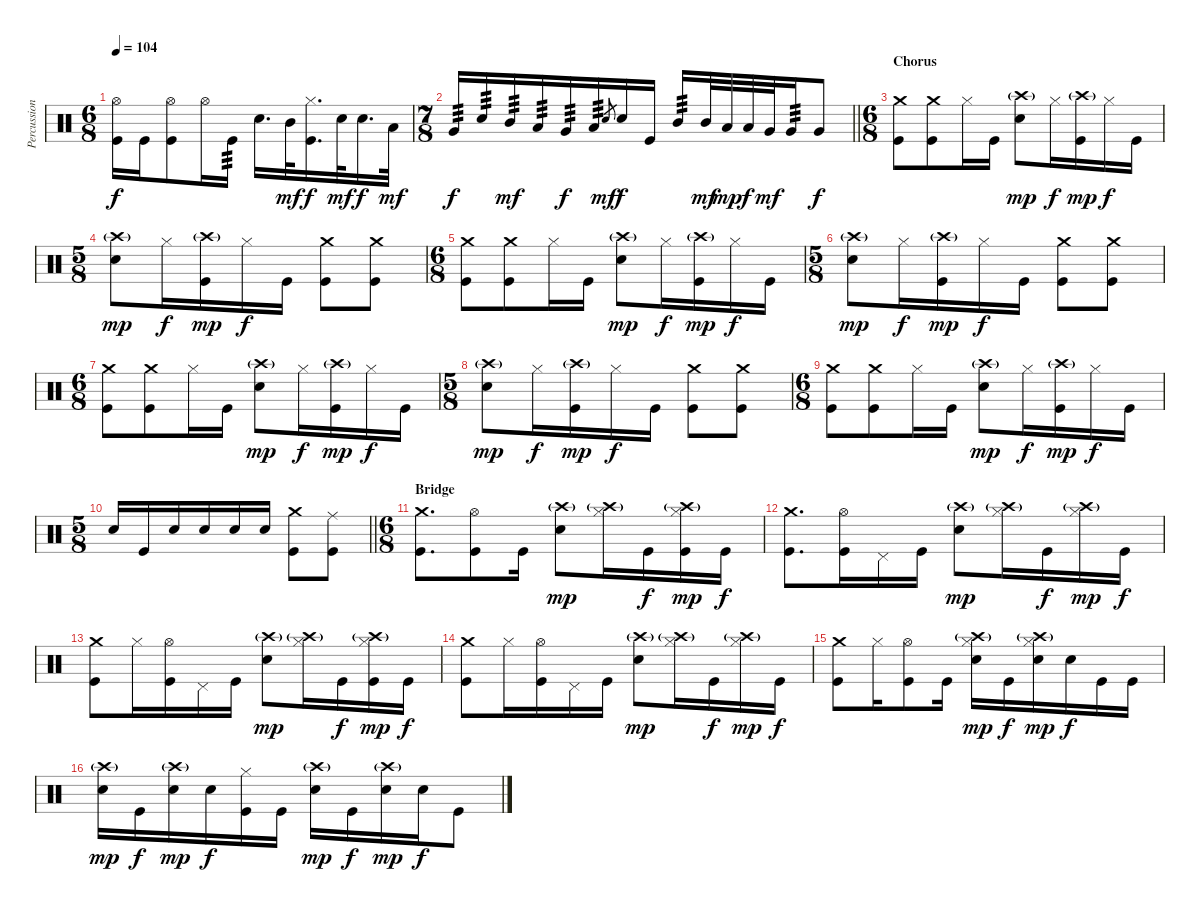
\track ("Percussion" "Percussion") {instrument percussion}
\staff {score}
\articulation defaults
\ts (6 8)
\tempo 104
\clef neutral
\ks c
("Hi-Hat (open)" "Kick (hit)").16{dy f} "Kick (hit)".16 ("Hi-Hat (open)" "Kick (hit)").8 "Hi-Hat (open)".16 "Kick (hit)".16{tp 3} "Snare (hit) 2".16{d} "Mid Tom (hit)".32{dy mf} ("Hi-Hat (closed)" "Kick (hit)").16{d dy f} "Snare (hit) 2".32{dy mf} "Snare (hit) 2".16{d dy f} "Low Tom (hit)".32{dy mf} |
\ts (7 8)
\barLineRight lightlight "Very Low Tom (hit)".16{tp 3 dy f} "Snare (hit) 2".16{tp 3} "Mid Tom (hit)".16{tp 3 dy mf} "Low Tom (hit)".16{tp 3} "Very Low Tom (hit)".16{tp 3 dy f} "Low Floor Tom (hit)".16{tp 3} "Snare (hit) 2".8{gr dy mf} "Snare (hit) 2".16{dy f} "Kick (hit)".16 "Mid Tom (hit)".16{tp 3} "Mid Tom (hit)".32{dy mf} "Low Tom (hit)".32{dy mp} "Low Tom (hit)".32{dy f} "Very Low Tom (hit)".32{dy mf} "Very Low Tom (hit)".16{tp 3} "Very Low Tom (hit)".8{dy f}
|
\ts (6 8)
\section ("" "Chorus")
("Crash medium (hit)" "Kick (hit)").8 ("Crash medium (hit)" "Kick (hit)").8 "Hi-Hat (closed)".16 "Kick (hit)".16 ("Crash high (hit)"{g} "Snare (hit) 2").8{dy mp} "Hi-Hat (closed)".16{dy f} ("Crash high (hit)"{g} "Kick (hit)").16{dy mp} "Hi-Hat (closed)".16{dy f} "Kick (hit)".16 |
\ts (5 8)
("Crash high (hit)"{g} "Snare (hit) 2").8{dy mp} "Hi-Hat (closed)".16{dy f} ("Crash high (hit)"{g} "Kick (hit)").16{dy mp} "Hi-Hat (closed)".16{dy f} "Kick (hit)".16 ("Crash medium (hit)" "Kick (hit)").8 ("Crash medium (hit)" "Kick (hit)").8 |
\ts (6 8)
("Crash medium (hit)" "Kick (hit)").8 ("Crash medium (hit)" "Kick (hit)").8 "Hi-Hat (closed)".16 "Kick (hit)".16 ("Crash high (hit)"{g} "Snare (hit) 2").8{dy mp} "Hi-Hat (closed)".16{dy f} ("Crash high (hit)"{g} "Kick (hit)").16{dy mp} "Hi-Hat (closed)".16{dy f} "Kick (hit)".16 |
\ts (5 8)
("Crash high (hit)"{g} "Snare (hit) 2").8{dy mp} "Hi-Hat (closed)".16{dy f} ("Crash high (hit)"{g} "Kick (hit)").16{dy mp} "Hi-Hat (closed)".16{dy f} "Kick (hit)".16 ("Crash medium (hit)" "Kick (hit)").8 ("Crash medium (hit)" "Kick (hit)").8 |
\ts (6 8)
("Crash medium (hit)" "Kick (hit)").8 ("Crash medium (hit)" "Kick (hit)").8 "Hi-Hat (closed)".16 "Kick (hit)".16 ("Crash high (hit)"{g} "Snare (hit) 2").8{dy mp} "Hi-Hat (closed)".16{dy f} ("Crash high (hit)"{g} "Kick (hit)").16{dy mp} "Hi-Hat (closed)".16{dy f} "Kick (hit)".16 |
\ts (5 8)
("Crash high (hit)"{g} "Snare (hit) 2").8{dy mp} "Hi-Hat (closed)".16{dy f} ("Crash high (hit)"{g} "Kick (hit)").16{dy mp} "Hi-Hat (closed)".16{dy f} "Kick (hit)".16 ("Crash medium (hit)" "Kick (hit)").8 ("Crash medium (hit)" "Kick (hit)").8 |
\ts (6 8)
("Crash medium (hit)" "Kick (hit)").8 ("Crash medium (hit)" "Kick (hit)").8 "Hi-Hat (closed)".16 "Kick (hit)".16 ("Crash high (hit)"{g} "Snare (hit) 2").8{dy mp} "Hi-Hat (closed)".16{dy f} ("Crash high (hit)"{g} "Kick (hit)").16{dy mp} "Hi-Hat (closed)".16{dy f} "Kick (hit)".16 |
\ts (5 8)
\barLineRight lightlight "Snare (hit) 2".16 "Kick (hit)".16 "Snare (hit) 2".16 "Snare (hit) 2".16 "Snare (hit) 2".16 "Snare (hit) 2".16
("Crash medium (hit)" "Kick (hit)").8 ("Ride (middle)" "Kick (hit)").8 |
\ts (6 8)
\section ("" "Bridge")
("Crash medium (hit)" "Kick (hit)").8{d} ("Hi-Hat (open)" "Kick (hit)").8 "Kick (hit)".16 ("Crash high (hit)"{g} "Snare (hit) 2").8{dy mp} ("Hi-Hat (closed)" "Crash high (hit)"{g}).16 "Kick (hit)".16{dy f} ("Hi-Hat (closed)" "Crash high (hit)"{g} "Kick (hit)").16{dy mp} "Kick (hit)".16{dy f} |
("Crash medium (hit)" "Kick (hit)").8{d} ("Hi-Hat (open)" "Kick (hit)").16 "Pedal Hi-Hat (hit)".16 "Kick (hit)".16 ("Crash high (hit)"{g} "Snare (hit) 2").8{dy mp} ("Hi-Hat (closed)" "Crash high (hit)"{g}).16 "Kick (hit)".16{dy f} ("Hi-Hat (closed)" "Crash high (hit)"{g}).16{dy mp} "Kick (hit)".16{dy f} |
("Crash medium (hit)" "Kick (hit)").8 "Hi-Hat (closed)".16 ("Hi-Hat (open)" "Kick (hit)").16 "Pedal Hi-Hat (hit)".16 "Kick (hit)".16 ("Crash high (hit)"{g} "Snare (hit) 2").8{dy mp} ("Hi-Hat (closed)" "Crash high (hit)"{g}).16 "Kick (hit)".16{dy f} ("Hi-Hat (closed)" "Crash high (hit)"{g} "Kick (hit)").16{dy mp} "Kick (hit)".16{dy f} |
("Crash medium (hit)" "Kick (hit)").8 "Hi-Hat (closed)".16 ("Hi-Hat (open)" "Kick (hit)").16 "Pedal Hi-Hat (hit)".16 "Kick (hit)".16 ("Crash high (hit)"{g} "Snare (hit) 2").8{dy mp} ("Hi-Hat (closed)" "Crash high (hit)"{g}).16 "Kick (hit)".16{dy f} ("Hi-Hat (closed)" "Crash high (hit)"{g}).16{dy mp} "Kick (hit)".16{dy f} |
("Crash medium (hit)" "Kick (hit)").8 "Hi-Hat (closed)".16 ("Hi-Hat (open)" "Kick (hit)").8 "Kick (hit)".16 ("Hi-Hat (closed)" "Crash high (hit)"{g} "Snare (hit) 2").16{dy mp} "Kick (hit)".16{dy f} ("Hi-Hat (closed)" "Crash high (hit)"{g} "Snare (hit) 2").16{dy mp} "Snare (hit) 2".16{dy f} "Kick (hit)".16 "Kick (hit)".16 |
("Crash high (hit)"{g} "Snare (hit) 2").16{dy mp} "Kick (hit)".16{dy f} ("Crash high (hit)"{g} "Snare (hit) 2").16{dy mp} "Snare (hit) 2".16{dy f} ("Hi-Hat (closed)" "Kick (hit)").16 "Kick (hit)".16 ("Crash high (hit)"{g} "Snare (hit) 2").16{dy mp} "Kick (hit)".16{dy f} ("Crash high (hit)"{g} "Snare (hit) 2").16{dy mp} "Snare (hit) 2".16{dy f} "Kick (hit)".8
